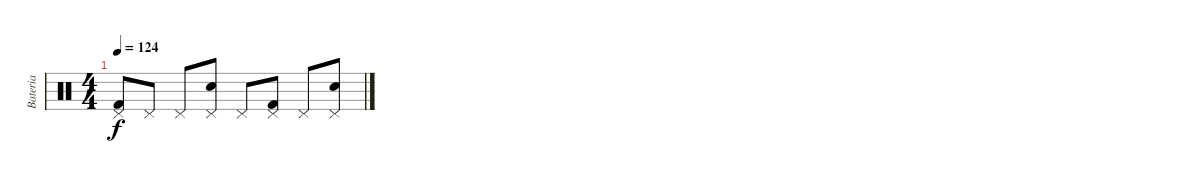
\track ("Bateria" "Bateria") {instrument percussion}
\staff {score}
\articulation defaults
\ts (4 4)
\tempo 124
\clef neutral
\ks c
("Pedal Hi-Hat (hit)" "Kick (hit) 2").8{dy f} "Pedal Hi-Hat (hit)".8 "Pedal Hi-Hat (hit)".8 ("Pedal Hi-Hat (hit)" "Electric Snare (hit)").8 "Pedal Hi-Hat (hit)".8 ("Pedal Hi-Hat (hit)" "Kick (hit) 2").8 "Pedal Hi-Hat (hit)".8 ("Pedal Hi-Hat (hit)" "Electric Snare (hit)").8
